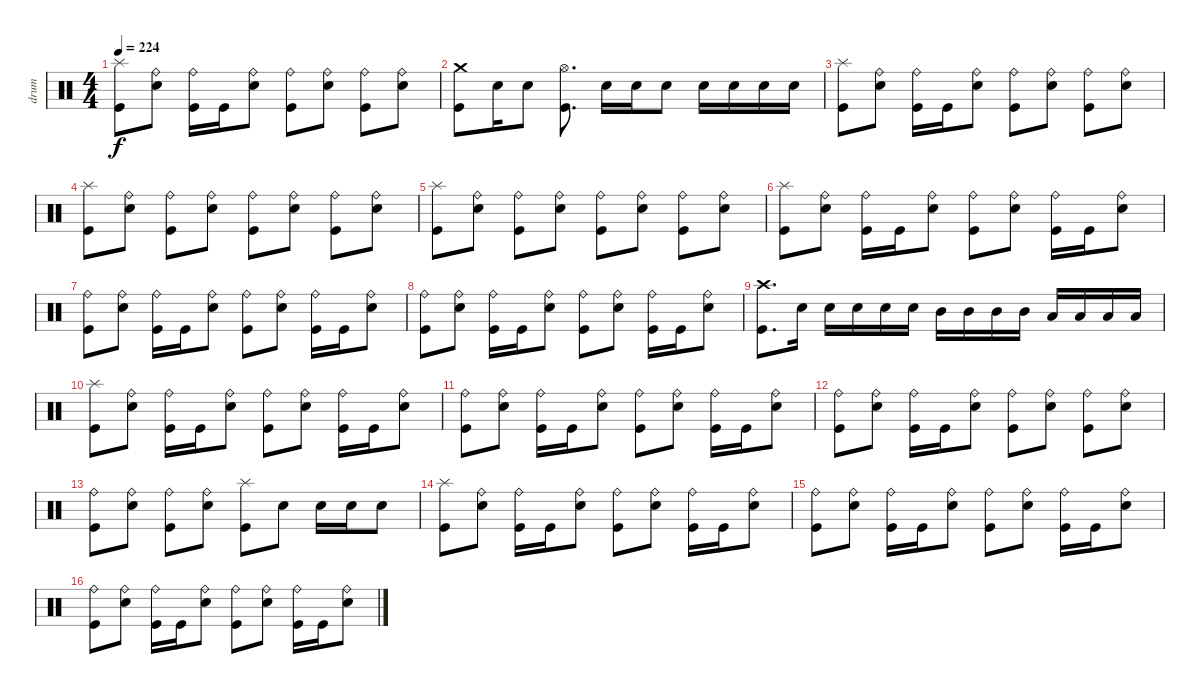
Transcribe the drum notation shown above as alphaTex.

\track ("drum" "drum") {instrument percussion}
\staff {score}
\articulation defaults
\ts (4 4)
\tempo 224
\clef neutral
\ks c
("Kick (hit)" "Splash (hit)").8{dy f} ("Electric Snare (hit)" "Ride (bell)").8 ("Kick (hit)" "Ride (bell)").16 "Kick (hit)".16 ("Electric Snare (hit)" "Ride (bell)").8 ("Kick (hit)" "Ride (bell)").8 ("Electric Snare (hit)" "Ride (bell)").8 ("Kick (hit)" "Ride (bell)").8 ("Electric Snare (hit)" "Ride (bell)").8 |
("Kick (hit)" "Crash medium (hit)").8 "Electric Snare (hit)".16 "Electric Snare (hit)".8 ("Kick (hit)" "Hi-Hat (open)").8{d} "Electric Snare (hit)".16 "Electric Snare (hit)".16 "Electric Snare (hit)".8 "Electric Snare (hit)".16 "Electric Snare (hit)".16 "Electric Snare (hit)".16 "Electric Snare (hit)".16 |
("Kick (hit)" "Splash (hit)").8 ("Electric Snare (hit)" "Ride (bell)").8 ("Kick (hit)" "Ride (bell)").16 "Kick (hit)".16 ("Electric Snare (hit)" "Ride (bell)").8 ("Kick (hit)" "Ride (bell)").8 ("Electric Snare (hit)" "Ride (bell)").8 ("Kick (hit)" "Ride (bell)").8 ("Electric Snare (hit)" "Ride (bell)").8 |
("Kick (hit)" "Splash (hit)").8 ("Electric Snare (hit)" "Ride (bell)").8 ("Kick (hit)" "Ride (bell)").8 ("Electric Snare (hit)" "Ride (bell)").8 ("Kick (hit)" "Ride (bell)").8 ("Electric Snare (hit)" "Ride (bell)").8 ("Kick (hit)" "Ride (bell)").8 ("Electric Snare (hit)" "Ride (bell)").8 |
("Kick (hit)" "Splash (hit)").8 ("Electric Snare (hit)" "Ride (bell)").8 ("Kick (hit)" "Ride (bell)").8 ("Electric Snare (hit)" "Ride (bell)").8 ("Kick (hit)" "Ride (bell)").8 ("Electric Snare (hit)" "Ride (bell)").8 ("Kick (hit)" "Ride (bell)").8 ("Electric Snare (hit)" "Ride (bell)").8 |
("Kick (hit)" "Splash (hit)").8 ("Electric Snare (hit)" "Ride (bell)").8 ("Kick (hit)" "Ride (bell)").16 "Kick (hit)".16 ("Electric Snare (hit)" "Ride (bell)").8 ("Kick (hit)" "Ride (bell)").8 ("Electric Snare (hit)" "Ride (bell)").8 ("Kick (hit)" "Ride (bell)").16 "Kick (hit)".16 ("Electric Snare (hit)" "Ride (bell)").8 |
("Kick (hit)" "Ride (bell)").8 ("Electric Snare (hit)" "Ride (bell)").8 ("Kick (hit)" "Ride (bell)").16 "Kick (hit)".16 ("Electric Snare (hit)" "Ride (bell)").8 ("Kick (hit)" "Ride (bell)").8 ("Electric Snare (hit)" "Ride (bell)").8 ("Kick (hit)" "Ride (bell)").16 "Kick (hit)".16 ("Electric Snare (hit)" "Ride (bell)").8 |
("Kick (hit)" "Ride (bell)").8 ("Electric Snare (hit)" "Ride (bell)").8 ("Kick (hit)" "Ride (bell)").16 "Kick (hit)".16 ("Electric Snare (hit)" "Ride (bell)").8 ("Kick (hit)" "Ride (bell)").8 ("Electric Snare (hit)" "Ride (bell)").8 ("Kick (hit)" "Ride (bell)").16 "Kick (hit)".16 ("Electric Snare (hit)" "Ride (bell)").8 |
("Kick (hit)" "Crash high (hit)").8{d} "Electric Snare (hit)".16 "Electric Snare (hit)".16 "Electric Snare (hit)".16 "Electric Snare (hit)".16 "Electric Snare (hit)".16 "Mid Tom (hit)".16 "Mid Tom (hit)".16 "Mid Tom (hit)".16 "Mid Tom (hit)".16 "Low Tom (hit)".16 "Low Tom (hit)".16 "Low Tom (hit)".16 "Low Tom (hit)".16 |
("Kick (hit)" "Splash (hit)").8 ("Electric Snare (hit)" "Ride (bell)").8 ("Kick (hit)" "Ride (bell)").16 "Kick (hit)".16 ("Electric Snare (hit)" "Ride (bell)").8 ("Kick (hit)" "Ride (bell)").8 ("Electric Snare (hit)" "Ride (bell)").8 ("Kick (hit)" "Ride (bell)").16 "Kick (hit)".16 ("Electric Snare (hit)" "Ride (bell)").8 |
("Kick (hit)" "Ride (bell)").8 ("Electric Snare (hit)" "Ride (bell)").8 ("Kick (hit)" "Ride (bell)").16 "Kick (hit)".16 ("Electric Snare (hit)" "Ride (bell)").8 ("Kick (hit)" "Ride (bell)").8 ("Electric Snare (hit)" "Ride (bell)").8 ("Kick (hit)" "Ride (bell)").16 "Kick (hit)".16 ("Electric Snare (hit)" "Ride (bell)").8 |
("Kick (hit)" "Ride (bell)").8 ("Electric Snare (hit)" "Ride (bell)").8 ("Kick (hit)" "Ride (bell)").16 "Kick (hit)".16 ("Electric Snare (hit)" "Ride (bell)").8 ("Kick (hit)" "Ride (bell)").8 ("Electric Snare (hit)" "Ride (bell)").8 ("Kick (hit)" "Ride (bell)").8 ("Electric Snare (hit)" "Ride (bell)").8 |
("Kick (hit)" "Ride (bell)").8 ("Electric Snare (hit)" "Ride (bell)").8 ("Kick (hit)" "Ride (bell)").8 ("Electric Snare (hit)" "Ride (bell)").8 ("Kick (hit)" "Splash (hit)").8 "Electric Snare (hit)".8 "Electric Snare (hit)".16 "Electric Snare (hit)".16 "Electric Snare (hit)".8 |
("Kick (hit)" "Splash (hit)").8 ("Electric Snare (hit)" "Ride (bell)").8 ("Kick (hit)" "Ride (bell)").16 "Kick (hit)".16 ("Electric Snare (hit)" "Ride (bell)").8 ("Kick (hit)" "Ride (bell)").8 ("Electric Snare (hit)" "Ride (bell)").8 ("Kick (hit)" "Ride (bell)").16 "Kick (hit)".16 ("Electric Snare (hit)" "Ride (bell)").8 |
("Kick (hit)" "Ride (bell)").8 ("Electric Snare (hit)" "Ride (bell)").8 ("Kick (hit)" "Ride (bell)").16 "Kick (hit)".16 ("Electric Snare (hit)" "Ride (bell)").8 ("Kick (hit)" "Ride (bell)").8 ("Electric Snare (hit)" "Ride (bell)").8 ("Kick (hit)" "Ride (bell)").16 "Kick (hit)".16 ("Electric Snare (hit)" "Ride (bell)").8 |
("Kick (hit)" "Ride (bell)").8 ("Electric Snare (hit)" "Ride (bell)").8 ("Kick (hit)" "Ride (bell)").16 "Kick (hit)".16 ("Electric Snare (hit)" "Ride (bell)").8 ("Kick (hit)" "Ride (bell)").8 ("Electric Snare (hit)" "Ride (bell)").8 ("Kick (hit)" "Ride (bell)").16 "Kick (hit)".16 ("Electric Snare (hit)" "Ride (bell)").8
